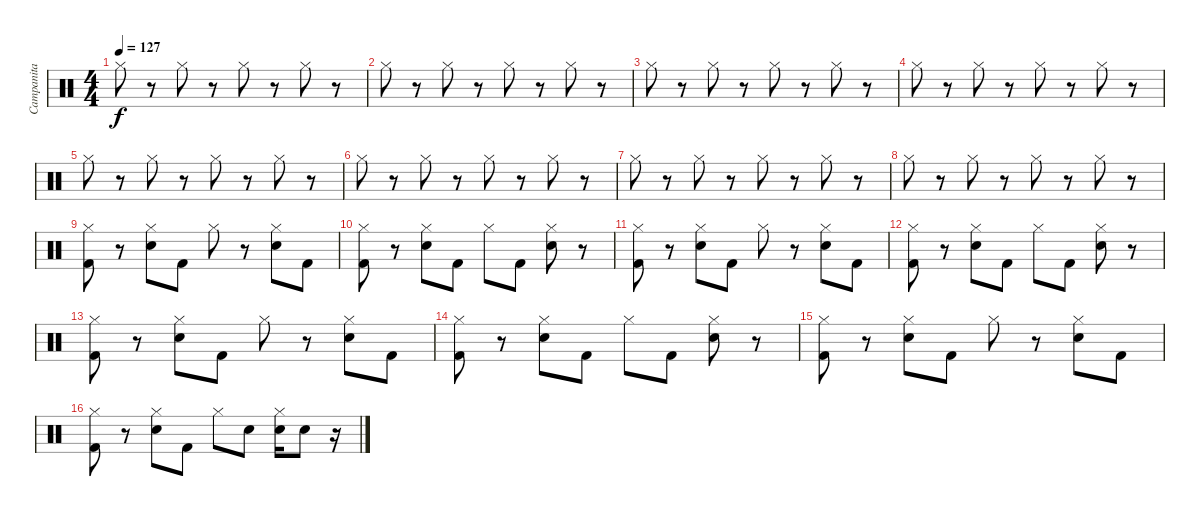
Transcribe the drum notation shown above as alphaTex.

\track ("Campanita" "Campanita") {instrument percussion}
\staff {score}
\articulation defaults
\ts (4 4)
\tempo 127
\clef neutral
\ks c "Hi-Hat (closed)".8{dy f}
r.8 "Hi-Hat (closed)".8 r.8 "Hi-Hat (closed)".8 r.8 "Hi-Hat (closed)".8 r.8 |
"Hi-Hat (closed)".8 r.8 "Hi-Hat (closed)".8 r.8 "Hi-Hat (closed)".8 r.8 "Hi-Hat (closed)".8 r.8 |
"Hi-Hat (closed)".8 r.8 "Hi-Hat (closed)".8 r.8 "Hi-Hat (closed)".8 r.8 "Hi-Hat (closed)".8 r.8 |
"Hi-Hat (closed)".8 r.8 "Hi-Hat (closed)".8 r.8 "Hi-Hat (closed)".8 r.8 "Hi-Hat (closed)".8 r.8 |
"Hi-Hat (closed)".8 r.8 "Hi-Hat (closed)".8 r.8 "Hi-Hat (closed)".8 r.8 "Hi-Hat (closed)".8 r.8 |
"Hi-Hat (closed)".8 r.8 "Hi-Hat (closed)".8 r.8 "Hi-Hat (closed)".8 r.8 "Hi-Hat (closed)".8 r.8 |
"Hi-Hat (closed)".8 r.8 "Hi-Hat (closed)".8 r.8 "Hi-Hat (closed)".8 r.8 "Hi-Hat (closed)".8 r.8 |
"Hi-Hat (closed)".8 r.8 "Hi-Hat (closed)".8 r.8 "Hi-Hat (closed)".8 r.8 "Hi-Hat (closed)".8 r.8 |
("Kick (hit) 2" "Hi-Hat (closed)").8 r.8 ("Electric Snare (hit)" "Hi-Hat (closed)").8 "Kick (hit) 2".8 "Hi-Hat (closed)".8 r.8 ("Electric Snare (hit)" "Hi-Hat (closed)").8 "Kick (hit) 2".8 |
("Kick (hit) 2" "Hi-Hat (closed)").8 r.8 ("Electric Snare (hit)" "Hi-Hat (closed)").8 "Kick (hit) 2".8 "Hi-Hat (closed)".8 "Kick (hit) 2".8 ("Electric Snare (hit)" "Hi-Hat (closed)").8 r.8 |
("Kick (hit) 2" "Hi-Hat (closed)").8 r.8 ("Electric Snare (hit)" "Hi-Hat (closed)").8 "Kick (hit) 2".8 "Hi-Hat (closed)".8 r.8 ("Electric Snare (hit)" "Hi-Hat (closed)").8 "Kick (hit) 2".8 |
("Kick (hit) 2" "Hi-Hat (closed)").8 r.8 ("Electric Snare (hit)" "Hi-Hat (closed)").8 "Kick (hit) 2".8 "Hi-Hat (closed)".8 "Kick (hit) 2".8 ("Electric Snare (hit)" "Hi-Hat (closed)").8 r.8 |
("Kick (hit) 2" "Hi-Hat (closed)").8 r.8 ("Electric Snare (hit)" "Hi-Hat (closed)").8 "Kick (hit) 2".8 "Hi-Hat (closed)".8 r.8 ("Electric Snare (hit)" "Hi-Hat (closed)").8 "Kick (hit) 2".8 |
("Kick (hit) 2" "Hi-Hat (closed)").8 r.8 ("Electric Snare (hit)" "Hi-Hat (closed)").8 "Kick (hit) 2".8 "Hi-Hat (closed)".8 "Kick (hit) 2".8 ("Electric Snare (hit)" "Hi-Hat (closed)").8 r.8 |
("Kick (hit) 2" "Hi-Hat (closed)").8 r.8 ("Electric Snare (hit)" "Hi-Hat (closed)").8 "Kick (hit) 2".8 "Hi-Hat (closed)".8 r.8 ("Electric Snare (hit)" "Hi-Hat (closed)").8 "Kick (hit) 2".8 |
("Kick (hit) 2" "Hi-Hat (closed)").8 r.8 ("Electric Snare (hit)" "Hi-Hat (closed)").8 "Kick (hit) 2".8 "Hi-Hat (closed)".8 "Electric Snare (hit)".8 ("Electric Snare (hit)" "Hi-Hat (closed)").16 "Electric Snare (hit)".8 r.16
